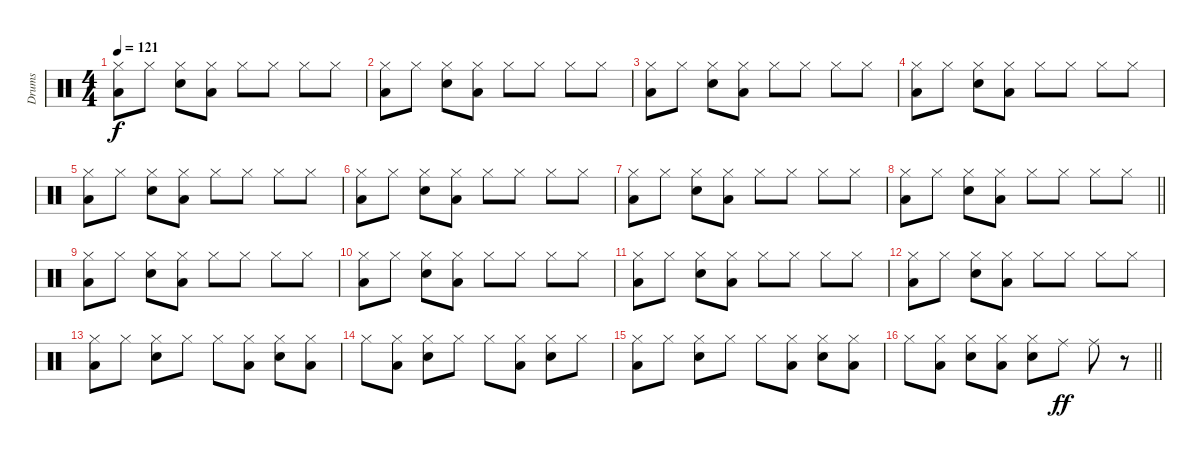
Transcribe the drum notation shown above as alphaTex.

\track ("Drums" "Drums") {instrument percussion}
\staff {score}
\articulation defaults
\ts (4 4)
\tempo 121
\clef neutral
\ks c
("Hi-Hat (closed)" "Low Floor Tom (hit)").8{dy f} "Hi-Hat (closed)".8 ("Hi-Hat (closed)" "Electric Snare (hit)").8 ("Hi-Hat (closed)" "Low Floor Tom (hit)").8 "Hi-Hat (closed)".8 "Hi-Hat (closed)".8 "Hi-Hat (closed)".8 "Hi-Hat (closed)".8 |
("Hi-Hat (closed)" "Low Floor Tom (hit)").8 "Hi-Hat (closed)".8 ("Hi-Hat (closed)" "Electric Snare (hit)").8 ("Hi-Hat (closed)" "Low Floor Tom (hit)").8 "Hi-Hat (closed)".8 "Hi-Hat (closed)".8 "Hi-Hat (closed)".8 "Hi-Hat (closed)".8 |
("Hi-Hat (closed)" "Low Floor Tom (hit)").8 "Hi-Hat (closed)".8 ("Hi-Hat (closed)" "Electric Snare (hit)").8 ("Hi-Hat (closed)" "Low Floor Tom (hit)").8 "Hi-Hat (closed)".8 "Hi-Hat (closed)".8 "Hi-Hat (closed)".8 "Hi-Hat (closed)".8 |
("Hi-Hat (closed)" "Low Floor Tom (hit)").8 "Hi-Hat (closed)".8 ("Hi-Hat (closed)" "Electric Snare (hit)").8 ("Hi-Hat (closed)" "Low Floor Tom (hit)").8 "Hi-Hat (closed)".8 "Hi-Hat (closed)".8 "Hi-Hat (closed)".8 "Hi-Hat (closed)".8 |
("Hi-Hat (closed)" "Low Floor Tom (hit)").8 "Hi-Hat (closed)".8 ("Hi-Hat (closed)" "Electric Snare (hit)").8 ("Hi-Hat (closed)" "Low Floor Tom (hit)").8 "Hi-Hat (closed)".8 "Hi-Hat (closed)".8 "Hi-Hat (closed)".8 "Hi-Hat (closed)".8 |
("Hi-Hat (closed)" "Low Floor Tom (hit)").8 "Hi-Hat (closed)".8 ("Hi-Hat (closed)" "Electric Snare (hit)").8 ("Hi-Hat (closed)" "Low Floor Tom (hit)").8 "Hi-Hat (closed)".8 "Hi-Hat (closed)".8 "Hi-Hat (closed)".8 "Hi-Hat (closed)".8 |
("Hi-Hat (closed)" "Low Floor Tom (hit)").8 "Hi-Hat (closed)".8 ("Hi-Hat (closed)" "Electric Snare (hit)").8 ("Hi-Hat (closed)" "Low Floor Tom (hit)").8 "Hi-Hat (closed)".8 "Hi-Hat (closed)".8 "Hi-Hat (closed)".8 "Hi-Hat (closed)".8 |
\barLineRight lightlight
("Hi-Hat (closed)" "Low Floor Tom (hit)").8 "Hi-Hat (closed)".8 ("Hi-Hat (closed)" "Electric Snare (hit)").8 ("Hi-Hat (closed)" "Low Floor Tom (hit)").8 "Hi-Hat (closed)".8 "Hi-Hat (closed)".8 "Hi-Hat (closed)".8 "Hi-Hat (closed)".8 |
("Hi-Hat (closed)" "Low Floor Tom (hit)").8 "Hi-Hat (closed)".8 ("Hi-Hat (closed)" "Electric Snare (hit)").8 ("Hi-Hat (closed)" "Low Floor Tom (hit)").8 "Hi-Hat (closed)".8 "Hi-Hat (closed)".8 "Hi-Hat (closed)".8 "Hi-Hat (closed)".8 |
("Hi-Hat (closed)" "Low Floor Tom (hit)").8 "Hi-Hat (closed)".8 ("Hi-Hat (closed)" "Electric Snare (hit)").8 ("Hi-Hat (closed)" "Low Floor Tom (hit)").8 "Hi-Hat (closed)".8 "Hi-Hat (closed)".8 "Hi-Hat (closed)".8 "Hi-Hat (closed)".8 |
("Hi-Hat (closed)" "Low Floor Tom (hit)").8 "Hi-Hat (closed)".8 ("Hi-Hat (closed)" "Electric Snare (hit)").8 ("Hi-Hat (closed)" "Low Floor Tom (hit)").8 "Hi-Hat (closed)".8 "Hi-Hat (closed)".8 "Hi-Hat (closed)".8 "Hi-Hat (closed)".8 |
("Hi-Hat (closed)" "Low Floor Tom (hit)").8 "Hi-Hat (closed)".8 ("Hi-Hat (closed)" "Electric Snare (hit)").8 ("Hi-Hat (closed)" "Low Floor Tom (hit)").8 "Hi-Hat (closed)".8 "Hi-Hat (closed)".8 "Hi-Hat (closed)".8 "Hi-Hat (closed)".8 |
("Hi-Hat (closed)" "Low Floor Tom (hit)").8 "Hi-Hat (closed)".8 ("Hi-Hat (closed)" "Electric Snare (hit)").8 "Hi-Hat (closed)".8 "Hi-Hat (closed)".8 ("Hi-Hat (closed)" "Low Floor Tom (hit)").8 ("Hi-Hat (closed)" "Electric Snare (hit)").8 ("Hi-Hat (closed)" "Low Floor Tom (hit)").8 |
"Hi-Hat (closed)".8 ("Hi-Hat (closed)" "Low Floor Tom (hit)").8 ("Hi-Hat (closed)" "Electric Snare (hit)").8 "Hi-Hat (closed)".8 "Hi-Hat (closed)".8 ("Hi-Hat (closed)" "Low Floor Tom (hit)").8 ("Hi-Hat (closed)" "Electric Snare (hit)").8 "Hi-Hat (closed)".8 |
("Hi-Hat (closed)" "Low Floor Tom (hit)").8 "Hi-Hat (closed)".8 ("Hi-Hat (closed)" "Electric Snare (hit)").8 "Hi-Hat (closed)".8 "Hi-Hat (closed)".8 ("Hi-Hat (closed)" "Low Floor Tom (hit)").8 ("Hi-Hat (closed)" "Electric Snare (hit)").8 ("Hi-Hat (closed)" "Low Floor Tom (hit)").8 |
\barLineRight lightlight "Hi-Hat (closed)".8
("Hi-Hat (closed)" "Low Floor Tom (hit)").8 ("Hi-Hat (closed)" "Electric Snare (hit)").8 ("Hi-Hat (closed)" "Low Floor Tom (hit)").8 ("Hi-Hat (closed)" "Electric Snare (hit)").8 "Ride (middle)".8{dy ff} "Ride (middle)".8 r.8
